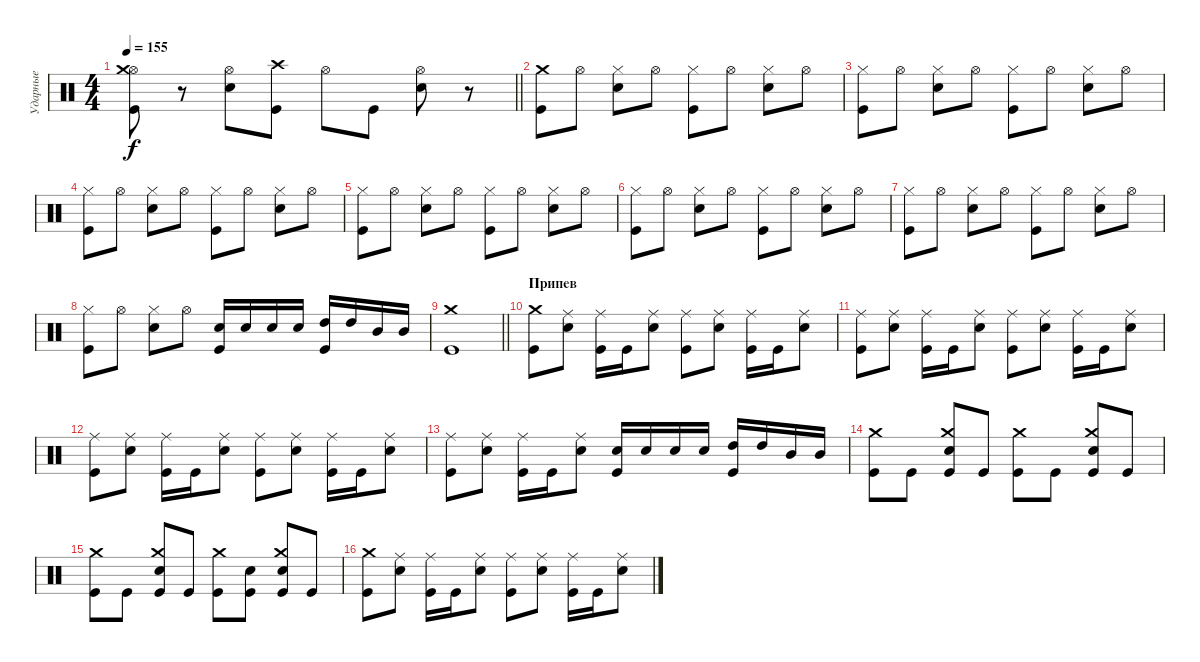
\track ("Ударные" "Ударные") {instrument percussion}
\staff {score}
\articulation defaults
\ts (4 4)
\tempo 155
\clef neutral
\barLineRight lightlight
\ks c
("Hi-Hat (open)" "Kick (hit)" "Crash medium (hit)").8{dy f} r.8 ("Hi-Hat (open)" "Electric Snare (hit)").8 ("Kick (hit)" "Crash high (hit)").8 "Hi-Hat (open)".8 "Kick (hit)".8 ("Hi-Hat (open)" "Electric Snare (hit)").8 r.8 |
\section ("" " ")
("Crash medium (hit)" "Kick (hit)").8 "Hi-Hat (open)".8 ("Hi-Hat (closed)" "Electric Snare (hit)").8 "Hi-Hat (open)".8 ("Hi-Hat (closed)" "Kick (hit)").8 "Hi-Hat (open)".8 ("Hi-Hat (closed)" "Electric Snare (hit)").8 "Hi-Hat (open)".8 |
("Hi-Hat (closed)" "Kick (hit)").8 "Hi-Hat (open)".8 ("Hi-Hat (closed)" "Electric Snare (hit)").8 "Hi-Hat (open)".8 ("Hi-Hat (closed)" "Kick (hit)").8 "Hi-Hat (open)".8 ("Hi-Hat (closed)" "Electric Snare (hit)").8 "Hi-Hat (open)".8 |
("Hi-Hat (closed)" "Kick (hit)").8 "Hi-Hat (open)".8 ("Hi-Hat (closed)" "Electric Snare (hit)").8 "Hi-Hat (open)".8 ("Hi-Hat (closed)" "Kick (hit)").8 "Hi-Hat (open)".8 ("Hi-Hat (closed)" "Electric Snare (hit)").8 "Hi-Hat (open)".8 |
("Hi-Hat (closed)" "Kick (hit)").8 "Hi-Hat (open)".8 ("Hi-Hat (closed)" "Electric Snare (hit)").8 "Hi-Hat (open)".8 ("Hi-Hat (closed)" "Kick (hit)").8 "Hi-Hat (open)".8 ("Hi-Hat (closed)" "Electric Snare (hit)").8 "Hi-Hat (open)".8 |
("Hi-Hat (closed)" "Kick (hit)").8 "Hi-Hat (open)".8 ("Hi-Hat (closed)" "Electric Snare (hit)").8 "Hi-Hat (open)".8 ("Hi-Hat (closed)" "Kick (hit)").8 "Hi-Hat (open)".8 ("Hi-Hat (closed)" "Electric Snare (hit)").8 "Hi-Hat (open)".8 |
("Hi-Hat (closed)" "Kick (hit)").8 "Hi-Hat (open)".8 ("Hi-Hat (closed)" "Electric Snare (hit)").8 "Hi-Hat (open)".8 ("Hi-Hat (closed)" "Kick (hit)").8 "Hi-Hat (open)".8 ("Hi-Hat (closed)" "Electric Snare (hit)").8 "Hi-Hat (open)".8 |
("Hi-Hat (closed)" "Kick (hit)").8 "Hi-Hat (open)".8 ("Hi-Hat (closed)" "Electric Snare (hit)").8 "Hi-Hat (open)".8 ("Electric Snare (hit)" "Kick (hit)").16 "Electric Snare (hit)".16 "Electric Snare (hit)".16 "Electric Snare (hit)".16 ("High Tom (hit)" "Kick (hit)").16 "High Tom (hit)".16 "Mid Tom (hit)".16 "Mid Tom (hit)".16 |
\barLineRight lightlight
("Crash medium (hit)" "Kick (hit)").1 |
\section ("" "Припев")
("Crash medium (hit)" "Kick (hit)").8 ("Ride (middle)" "Electric Snare (hit)").8 ("Ride (middle)" "Kick (hit)").16 "Kick (hit)".16 ("Ride (middle)" "Electric Snare (hit)").8 ("Ride (middle)" "Kick (hit)").8 ("Ride (middle)" "Electric Snare (hit)").8 ("Ride (middle)" "Kick (hit)").16 "Kick (hit)".16 ("Ride (middle)" "Electric Snare (hit)").8 |
("Ride (middle)" "Kick (hit)").8 ("Ride (middle)" "Electric Snare (hit)").8 ("Ride (middle)" "Kick (hit)").16 "Kick (hit)".16 ("Ride (middle)" "Electric Snare (hit)").8 ("Ride (middle)" "Kick (hit)").8 ("Ride (middle)" "Electric Snare (hit)").8 ("Ride (middle)" "Kick (hit)").16 "Kick (hit)".16 ("Ride (middle)" "Electric Snare (hit)").8 |
("Ride (middle)" "Kick (hit)").8 ("Ride (middle)" "Electric Snare (hit)").8 ("Ride (middle)" "Kick (hit)").16 "Kick (hit)".16 ("Ride (middle)" "Electric Snare (hit)").8 ("Ride (middle)" "Kick (hit)").8 ("Ride (middle)" "Electric Snare (hit)").8 ("Ride (middle)" "Kick (hit)").16 "Kick (hit)".16 ("Ride (middle)" "Electric Snare (hit)").8 |
("Ride (middle)" "Kick (hit)").8 ("Ride (middle)" "Electric Snare (hit)").8 ("Ride (middle)" "Kick (hit)").16 "Kick (hit)".16 ("Ride (middle)" "Electric Snare (hit)").8 ("Electric Snare (hit)" "Kick (hit)").16 "Electric Snare (hit)".16 "Electric Snare (hit)".16 "Electric Snare (hit)".16 ("High Tom (hit)" "Kick (hit)").16 "High Tom (hit)".16 "Mid Tom (hit)".16 "Mid Tom (hit)".16 |
("Crash medium (hit)" "Kick (hit)").8 "Kick (hit)".8 ("Crash medium (hit)" "Electric Snare (hit)" "Kick (hit)").8 "Kick (hit)".8 ("Crash medium (hit)" "Kick (hit)").8 "Kick (hit)".8 ("Crash medium (hit)" "Electric Snare (hit)" "Kick (hit)").8 "Kick (hit)".8 |
("Crash medium (hit)" "Kick (hit)").8 "Kick (hit)".8 ("Crash medium (hit)" "Electric Snare (hit)" "Kick (hit)").8 "Kick (hit)".8 ("Crash medium (hit)" "Kick (hit)").8 ("Electric Snare (hit)" "Kick (hit)").8 ("Crash medium (hit)" "Electric Snare (hit)" "Kick (hit)").8 "Kick (hit)".8 |
("Crash medium (hit)" "Kick (hit)").8 ("Ride (middle)" "Electric Snare (hit)").8 ("Ride (middle)" "Kick (hit)").16 "Kick (hit)".16 ("Ride (middle)" "Electric Snare (hit)").8 ("Ride (middle)" "Kick (hit)").8 ("Ride (middle)" "Electric Snare (hit)").8 ("Ride (middle)" "Kick (hit)").16 "Kick (hit)".16 ("Ride (middle)" "Electric Snare (hit)").8
